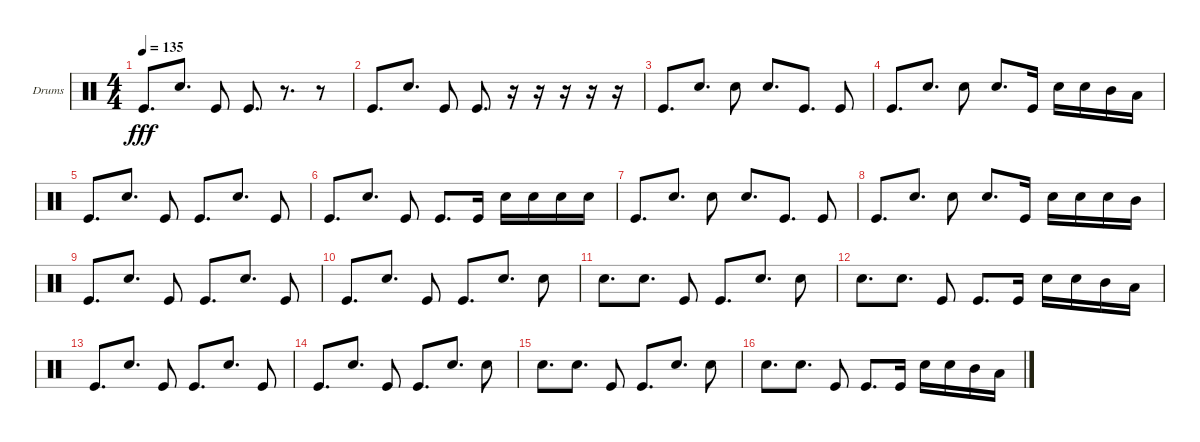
\defaultSystemsLayout 4
\bracketExtendMode groupsimilarinstruments
\firstSystemTrackNameOrientation horizontal
\otherSystemsTrackNameOrientation horizontal
\track ("Matt Helders" "Drums") {instrument percussion}
\staff {score}
\articulation defaults
\ts (4 4)
\tempo 135
\clef neutral
\scale
0.333333
\ks c "Kick (hit)".8{d dy fff} "Snare (hit) 2".8{d} "Kick (hit)".8 "Kick (hit)".8{d}
r.8{d} r.8 |
\scale
0.333333 "Kick (hit)".8{d} "Snare (hit) 2".8{d} "Kick (hit)".8 "Kick (hit)".8{d} r.16 r.16 r.16 r.16 r.16 |
\scale
0.333333 "Kick (hit)".8{d} "Snare (hit) 2".8{d} "Snare (hit) 2".8 "Snare (hit) 2".8{d} "Kick (hit)".8{d} "Kick (hit)".8 |
\scale
0.333333 "Kick (hit)".8{d} "Snare (hit) 2".8{d} "Snare (hit) 2".8 "Snare (hit) 2".8{d} "Kick (hit)".16 "Snare (hit) 2".16 "Snare (hit) 2".16 "Mid Tom (hit)".16 "Low Tom (hit)".16 |
\scale
0.333333 "Kick (hit)".8{d} "Snare (hit) 2".8{d} "Kick (hit)".8 "Kick (hit)".8{d} "Snare (hit) 2".8{d} "Kick (hit)".8 |
"Kick (hit)".8{d} "Snare (hit) 2".8{d} "Kick (hit)".8 "Kick (hit)".8{d} "Kick (hit)".16 "Snare (hit) 2".16 "Snare (hit) 2".16 "Snare (hit) 2".16 "Snare (hit) 2".16 |
"Kick (hit)".8{d} "Snare (hit) 2".8{d} "Snare (hit) 2".8 "Snare (hit) 2".8{d} "Kick (hit)".8{d} "Kick (hit)".8 |
"Kick (hit)".8{d} "Snare (hit) 2".8{d} "Snare (hit) 2".8 "Snare (hit) 2".8{d} "Kick (hit)".16 "Snare (hit) 2".16 "Snare (hit) 2".16 "Snare (hit) 2".16 "Mid Tom (hit)".16 |
"Kick (hit)".8{d} "Snare (hit) 2".8{d} "Kick (hit)".8 "Kick (hit)".8{d} "Snare (hit) 2".8{d} "Kick (hit)".8 |
"Kick (hit)".8{d} "Snare (hit) 2".8{d} "Kick (hit)".8 "Kick (hit)".8{d} "Snare (hit) 2".8{d} "Snare (hit) 2".8 |
"Snare (hit) 2".8{d} "Snare (hit) 2".8{d} "Kick (hit)".8 "Kick (hit)".8{d} "Snare (hit) 2".8{d} "Snare (hit) 2".8 |
"Snare (hit) 2".8{d} "Snare (hit) 2".8{d} "Kick (hit)".8 "Kick (hit)".8{d} "Kick (hit)".16 "Snare (hit) 2".16 "Snare (hit) 2".16 "Mid Tom (hit)".16 "Low Tom (hit)".16 |
"Kick (hit)".8{d} "Snare (hit) 2".8{d} "Kick (hit)".8 "Kick (hit)".8{d} "Snare (hit) 2".8{d} "Kick (hit)".8 |
"Kick (hit)".8{d} "Snare (hit) 2".8{d} "Kick (hit)".8 "Kick (hit)".8{d} "Snare (hit) 2".8{d} "Snare (hit) 2".8 |
"Snare (hit) 2".8{d} "Snare (hit) 2".8{d} "Kick (hit)".8 "Kick (hit)".8{d} "Snare (hit) 2".8{d} "Snare (hit) 2".8 |
"Snare (hit) 2".8{d} "Snare (hit) 2".8{d} "Kick (hit)".8 "Kick (hit)".8{d} "Kick (hit)".16 "Snare (hit) 2".16 "Snare (hit) 2".16 "Mid Tom (hit)".16 "Low Tom (hit)".16
